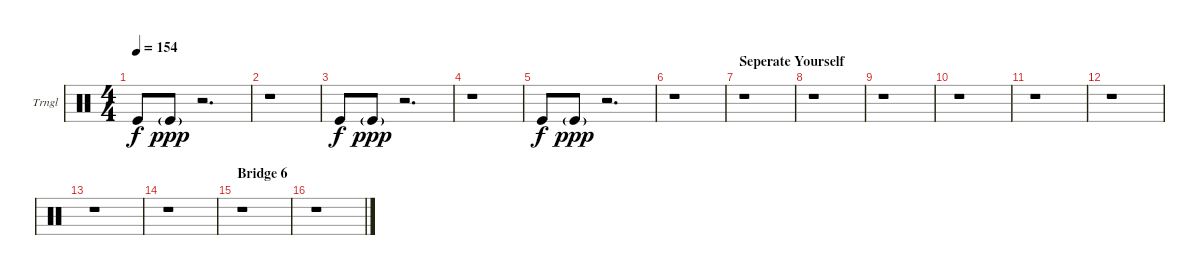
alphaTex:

\defaultSystemsLayout 4
\bracketExtendMode groupsimilarinstruments
\firstSystemTrackNameOrientation horizontal
\otherSystemsTrackNameOrientation horizontal
\track ("Triangle" "Trngl") {instrument percussion}
\staff {score}
\articulation defaults
\ts (4 4)
\tempo 154
\clef neutral
\ks c "Kick (hit)".8{dy f} "Kick (hit)"{g}.8{dy ppp}
r.2{d} |
r.1 |
"Kick (hit)".8{dy f} "Kick (hit)"{g}.8{dy ppp} r.2{d} |
r.1 |
"Kick (hit)".8{dy f} "Kick (hit)"{g}.8{dy ppp} r.2{d} |
r.1 |
\section ("" "Seperate Yourself")
r.1 |
r.1 |
r.1 |
r.1 |
r.1 |
r.1 |
r.1 |
r.1 |
\section ("" "Bridge 6")
r.1 |
r.1
